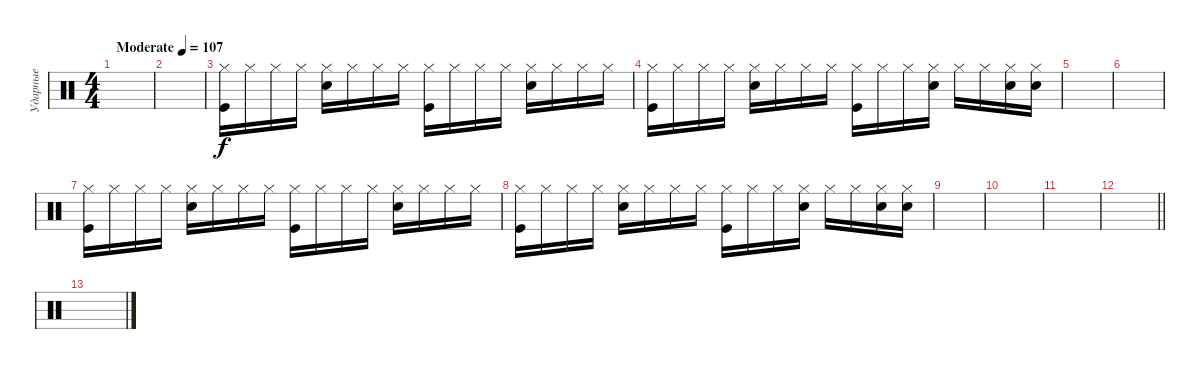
\track ("Ударные" "Ударные") {instrument percussion}
\staff {score}
\articulation defaults
\ts (4 4)
\section ("" "")
\tempo (107 "Moderate")
\clef neutral
\ks c
|
|
("Kick (hit)" "Hi-Hat (closed)").16{volume 7} "Hi-Hat (closed)".16 "Hi-Hat (closed)".16 "Hi-Hat (closed)".16 ("Snare (hit) 2" "Hi-Hat (closed)").16 "Hi-Hat (closed)".16 "Hi-Hat (closed)".16 "Hi-Hat (closed)".16 ("Kick (hit)" "Hi-Hat (closed)").16 "Hi-Hat (closed)".16 "Hi-Hat (closed)".16 "Hi-Hat (closed)".16 ("Snare (hit) 2" "Hi-Hat (closed)").16 "Hi-Hat (closed)".16 "Hi-Hat (closed)".16 "Hi-Hat (closed)".16 |
("Kick (hit)" "Hi-Hat (closed)").16 "Hi-Hat (closed)".16 "Hi-Hat (closed)".16 "Hi-Hat (closed)".16 ("Snare (hit) 2" "Hi-Hat (closed)").16 "Hi-Hat (closed)".16 "Hi-Hat (closed)".16 "Hi-Hat (closed)".16 ("Kick (hit)" "Hi-Hat (closed)").16 "Hi-Hat (closed)".16 "Hi-Hat (closed)".16 ("Hi-Hat (closed)" "Snare (hit) 2").16 "Hi-Hat (closed)".16 "Hi-Hat (closed)".16 ("Hi-Hat (closed)" "Snare (hit) 2").16 ("Hi-Hat (closed)" "Snare (hit) 2").16 |
|
|
("Kick (hit)" "Hi-Hat (closed)").16{volume 7} "Hi-Hat (closed)".16 "Hi-Hat (closed)".16 "Hi-Hat (closed)".16 ("Snare (hit) 2" "Hi-Hat (closed)").16 "Hi-Hat (closed)".16 "Hi-Hat (closed)".16 "Hi-Hat (closed)".16 ("Kick (hit)" "Hi-Hat (closed)").16 "Hi-Hat (closed)".16 "Hi-Hat (closed)".16 "Hi-Hat (closed)".16 ("Snare (hit) 2" "Hi-Hat (closed)").16 "Hi-Hat (closed)".16 "Hi-Hat (closed)".16 "Hi-Hat (closed)".16 |
("Kick (hit)" "Hi-Hat (closed)").16 "Hi-Hat (closed)".16 "Hi-Hat (closed)".16 "Hi-Hat (closed)".16 ("Snare (hit) 2" "Hi-Hat (closed)").16 "Hi-Hat (closed)".16 "Hi-Hat (closed)".16 "Hi-Hat (closed)".16 ("Kick (hit)" "Hi-Hat (closed)").16 "Hi-Hat (closed)".16 "Hi-Hat (closed)".16 ("Hi-Hat (closed)" "Snare (hit) 2").16 "Hi-Hat (closed)".16 "Hi-Hat (closed)".16 ("Hi-Hat (closed)" "Snare (hit) 2").16 ("Hi-Hat (closed)" "Snare (hit) 2").16 |
|
|
|
\barLineRight lightlight
|
\section ("" "")
